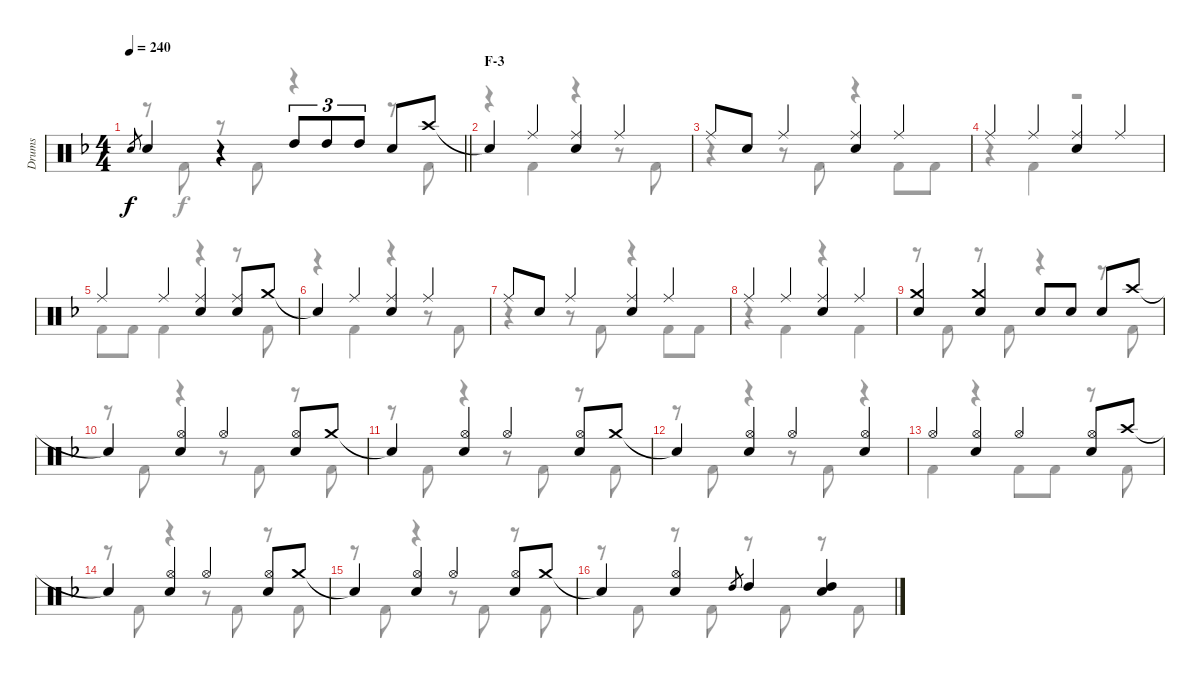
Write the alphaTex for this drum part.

\track ("Drums" "Drums") {instrument percussion}
\staff {score}
\articulation defaults
\voice
\ts (4 4)
\tempo 240
\clef neutral
\barLineRight lightlight
\ks f "Snare (hit) 2".8{gr dy f} "Snare (hit) 2".4
r.4 "High Tom (hit)".8{tu (3 2)} "High Tom (hit)".8{tu (3 2)} "High Tom (hit)".8{tu (3 2)} "Snare (hit) 2".8 "Crash high (hit)".8 |
\section ("" "F-3")
"Snare (hit)"{t}.4 "Ride (middle)".4 ("Ride (middle)" "Snare (hit) 2").4 "Ride (middle)".4 |
"Ride (middle)".8 "Snare (hit) 2".8 "Ride (middle)".4 ("Ride (middle)" "Snare (hit) 2").4 "Ride (middle)".4 |
"Ride (middle)".4 "Ride (middle)".4 ("Ride (middle)" "Snare (hit) 2").4 "Ride (middle)".4 |
"Ride (middle)".4 "Ride (middle)".4 ("Ride (middle)" "Snare (hit) 2").4 ("Ride (middle)" "Snare (hit) 2").8 "Crash medium (hit)".8 |
"Snare (hit)"{t}.4 "Ride (middle)".4 ("Ride (middle)" "Snare (hit) 2").4 "Ride (middle)".4 |
"Ride (middle)".8 "Snare (hit) 2".8 "Ride (middle)".4 ("Ride (middle)" "Snare (hit) 2").4 "Ride (middle)".4 |
"Ride (middle)".4 "Ride (middle)".4 ("Ride (middle)" "Snare (hit) 2").4 "Ride (middle)".4 |
("Crash medium (hit)" "Snare (hit) 2").4 ("Crash medium (hit)" "Snare (hit) 2").4 "Snare (hit) 2".8 "Snare (hit) 2".8 "Snare (hit) 2".8 "Crash high (hit)".8 |
"Snare (hit)"{t}.4 ("Hi-Hat (open)" "Snare (hit) 2").4 "Hi-Hat (open)".4 ("Hi-Hat (open)" "Snare (hit) 2").8 "Crash medium (hit)".8 |
"Snare (hit)"{t}.4 ("Hi-Hat (open)" "Snare (hit) 2").4 "Hi-Hat (open)".4 ("Hi-Hat (open)" "Snare (hit) 2").8 "Crash medium (hit)".8 |
"Snare (hit)"{t}.4 ("Hi-Hat (open)" "Snare (hit) 2").4 "Hi-Hat (open)".4 ("Hi-Hat (open)" "Snare (hit) 2").4 |
"Hi-Hat (open)".4 ("Hi-Hat (open)" "Snare (hit) 2").4 "Hi-Hat (open)".4 ("Hi-Hat (open)" "Snare (hit) 2").8 "Crash high (hit)".8 |
"Snare (hit)"{t}.4 ("Hi-Hat (open)" "Snare (hit) 2").4 "Hi-Hat (open)".4 ("Hi-Hat (open)" "Snare (hit) 2").8 "Crash medium (hit)".8 |
"Snare (hit)"{t}.4 ("Hi-Hat (open)" "Snare (hit) 2").4 "Hi-Hat (open)".4 ("Hi-Hat (open)" "Snare (hit) 2").8 "Crash medium (hit)".8 |
"Snare (hit)"{t}.4 ("Hi-Hat (open)" "Snare (hit) 2").4 "High Tom (hit)".8{gr} "High Tom (hit)".4 ("High Tom (hit)" "Snare (hit) 2").4
\voice
\clef neutral
\ottava regular
\simile none
\barLineRight lightlight
\ks f
r.8{dy f} "Kick (hit) 2".8 r.8 "Kick (hit) 2".8 r.4 r.8 "Kick (hit) 2".8 |
r.4 "Kick (hit) 2".4 r.4 r.8 "Kick (hit) 2".8 |
r.4 r.8 "Kick (hit) 2".8 r.4 "Kick (hit) 2".8 "Kick (hit) 2".8 |
r.4 "Kick (hit) 2".4 r.2 |
"Kick (hit) 2".8 "Kick (hit) 2".8 "Kick (hit) 2".4 r.4 r.8 "Kick (hit) 2".8 |
r.4 "Kick (hit) 2".4 r.4 r.8 "Kick (hit) 2".8 |
r.4 r.8 "Kick (hit) 2".8 r.4 "Kick (hit) 2".8 "Kick (hit) 2".8 |
r.4 "Kick (hit) 2".4 r.4 "Kick (hit) 2".4 |
r.8 "Kick (hit) 2".8 r.8 "Kick (hit) 2".8 r.4 r.8 "Kick (hit) 2".8 |
r.8 "Kick (hit) 2".8 r.4 r.8 "Kick (hit) 2".8 r.8 "Kick (hit) 2".8 |
r.8 "Kick (hit) 2".8 r.4 r.8 "Kick (hit) 2".8 r.8 "Kick (hit) 2".8 |
r.8 "Kick (hit) 2".8 r.4 r.8 "Kick (hit) 2".8 r.4 |
"Kick (hit) 2".4 r.4 "Kick (hit) 2".8 "Kick (hit) 2".8 r.8 "Kick (hit) 2".8 |
r.8 "Kick (hit) 2".8 r.4 r.8 "Kick (hit) 2".8 r.8 "Kick (hit) 2".8 |
r.8 "Kick (hit) 2".8 r.4 r.8 "Kick (hit) 2".8 r.8 "Kick (hit) 2".8 |
r.8 "Kick (hit) 2".8 r.8 "Kick (hit) 2".8 r.8 "Kick (hit) 2".8 r.8 "Kick (hit) 2".8
